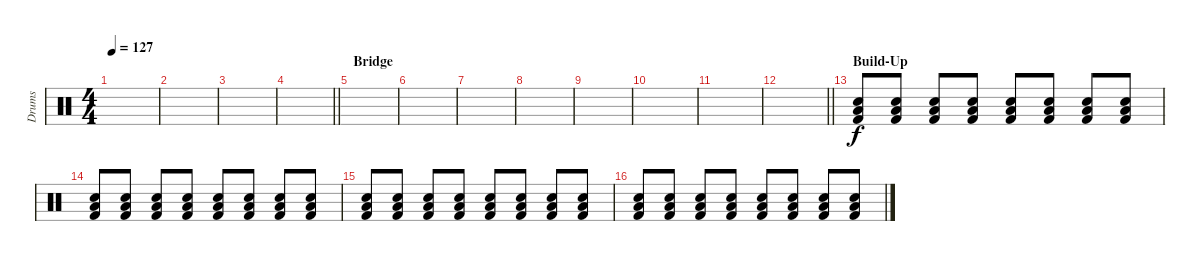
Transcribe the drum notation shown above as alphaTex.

\track ("Drums" "Drums") {instrument percussion}
\staff {score}
\articulation defaults
\ts (4 4)
\tempo 127
\clef neutral
\ks c
|
|
|
\barLineRight lightlight
|
\section ("" "Bridge")
|
|
|
|
|
|
|
\barLineRight lightlight
|
\section ("" "Build-Up")
("Low Floor Tom (hit)" "Snare (hit) 2" "Kick (hit) 2").8{volume 9} ("Low Floor Tom (hit)" "Snare (hit) 2" "Kick (hit) 2").8 ("Low Floor Tom (hit)" "Snare (hit) 2" "Kick (hit) 2").8 ("Low Floor Tom (hit)" "Snare (hit) 2" "Kick (hit) 2").8 ("Low Floor Tom (hit)" "Snare (hit) 2" "Kick (hit) 2").8 ("Low Floor Tom (hit)" "Snare (hit) 2" "Kick (hit) 2").8 ("Low Floor Tom (hit)" "Snare (hit) 2" "Kick (hit) 2").8 ("Low Floor Tom (hit)" "Snare (hit) 2" "Kick (hit) 2").8 |
("Low Floor Tom (hit)" "Snare (hit) 2" "Kick (hit) 2").8 ("Low Floor Tom (hit)" "Snare (hit) 2" "Kick (hit) 2").8 ("Low Floor Tom (hit)" "Snare (hit) 2" "Kick (hit) 2").8 ("Low Floor Tom (hit)" "Snare (hit) 2" "Kick (hit) 2").8 ("Low Floor Tom (hit)" "Snare (hit) 2" "Kick (hit) 2").8 ("Low Floor Tom (hit)" "Snare (hit) 2" "Kick (hit) 2").8 ("Low Floor Tom (hit)" "Snare (hit) 2" "Kick (hit) 2").8 ("Low Floor Tom (hit)" "Snare (hit) 2" "Kick (hit) 2").8 |
("Low Floor Tom (hit)" "Snare (hit) 2" "Kick (hit) 2").8 ("Low Floor Tom (hit)" "Snare (hit) 2" "Kick (hit) 2").8 ("Low Floor Tom (hit)" "Snare (hit) 2" "Kick (hit) 2").8 ("Low Floor Tom (hit)" "Snare (hit) 2" "Kick (hit) 2").8 ("Low Floor Tom (hit)" "Snare (hit) 2" "Kick (hit) 2").8 ("Low Floor Tom (hit)" "Snare (hit) 2" "Kick (hit) 2").8 ("Low Floor Tom (hit)" "Snare (hit) 2" "Kick (hit) 2").8 ("Low Floor Tom (hit)" "Snare (hit) 2" "Kick (hit) 2").8 |
("Low Floor Tom (hit)" "Snare (hit) 2" "Kick (hit) 2").8 ("Low Floor Tom (hit)" "Snare (hit) 2" "Kick (hit) 2").8 ("Low Floor Tom (hit)" "Snare (hit) 2" "Kick (hit) 2").8 ("Low Floor Tom (hit)" "Snare (hit) 2" "Kick (hit) 2").8 ("Low Floor Tom (hit)" "Snare (hit) 2" "Kick (hit) 2").8 ("Low Floor Tom (hit)" "Snare (hit) 2" "Kick (hit) 2").8 ("Low Floor Tom (hit)" "Snare (hit) 2" "Kick (hit) 2").8 ("Low Floor Tom (hit)" "Snare (hit) 2" "Kick (hit) 2").8
